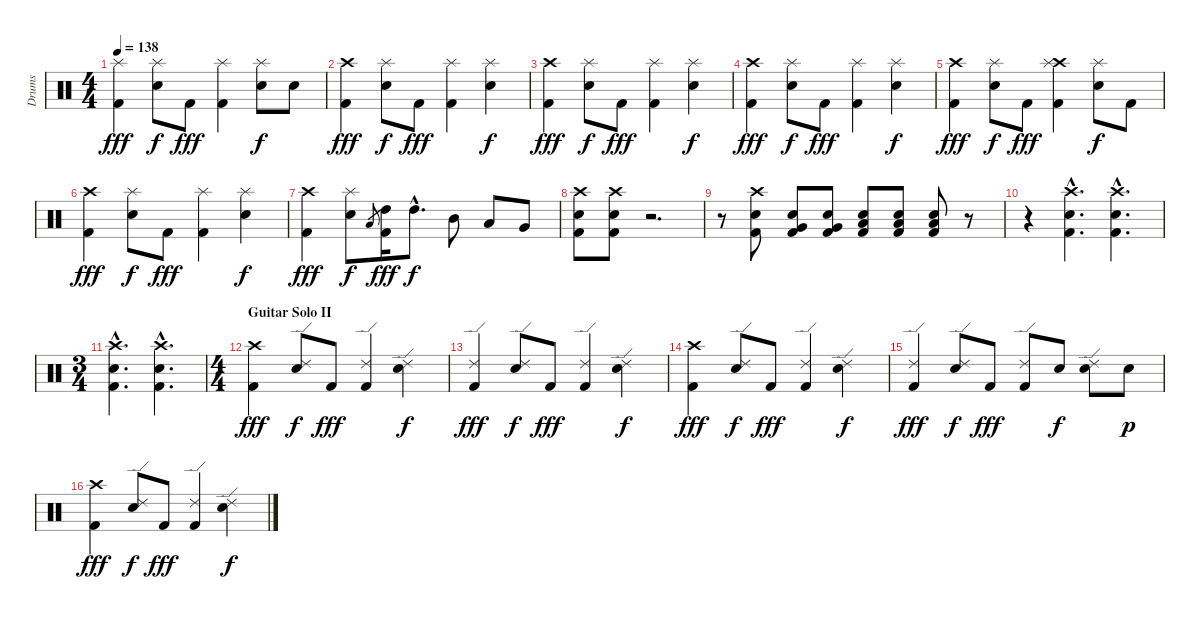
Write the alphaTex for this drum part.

\track ("Drums" "Drums") {instrument percussion}
\staff {score}
\articulation defaults
\ts (4 4)
\tempo 138
\clef neutral
\ks c
("Splash (hit)" "Kick (hit) 2").4{dy fff} ("Splash (hit)" "Snare (hit) 2").8{dy f} "Kick (hit) 2".8{dy fff} ("Splash (hit)" "Kick (hit) 2").4 ("Splash (hit)" "Snare (hit) 2").8{dy f} "Snare (hit) 2".8 |
("Crash high (hit)" "Kick (hit) 2").4{dy fff} ("Splash (hit)" "Snare (hit) 2").8{dy f} "Kick (hit) 2".8{dy fff} ("Splash (hit)" "Kick (hit) 2").4 ("Splash (hit)" "Snare (hit) 2").4{dy f} |
("Crash high (hit)" "Kick (hit) 2").4{dy fff} ("Splash (hit)" "Snare (hit) 2").8{dy f} "Kick (hit) 2".8{dy fff} ("Splash (hit)" "Kick (hit) 2").4 ("Splash (hit)" "Snare (hit) 2").4{dy f} |
("Crash high (hit)" "Kick (hit) 2").4{dy fff} ("Splash (hit)" "Snare (hit) 2").8{dy f} "Kick (hit) 2".8{dy fff} ("Splash (hit)" "Kick (hit) 2").4 ("Splash (hit)" "Snare (hit) 2").4{dy f} |
("Crash high (hit)" "Kick (hit) 2").4{dy fff} ("Splash (hit)" "Snare (hit) 2").8{dy f} "Kick (hit) 2".8{dy fff} ("Crash high (hit)" "Splash (hit)" "Kick (hit) 2").4 ("Splash (hit)" "Snare (hit) 2").8{dy f} "Kick (hit) 2".8 |
("Crash high (hit)" "Kick (hit) 2").4{dy fff} ("Splash (hit)" "Snare (hit) 2").8{dy f} "Kick (hit) 2".8{dy fff} ("Splash (hit)" "Kick (hit) 2").4 ("Splash (hit)" "Snare (hit) 2").4{dy f} |
("Crash high (hit)" "Kick (hit) 2").4{dy fff} ("Splash (hit)" "Snare (hit) 2").8{dy f} "Low Tom (hit)".8{gr} ("High Tom (hit)" "Kick (hit) 2").16{dy fff} "High Tom (hit)"{hac}.8{d dy f} "Mid Tom (hit)".8 "Low Tom (hit)".8 "Very Low Tom (hit)".8 |
("Crash high (hit)" "Snare (hit) 2" "Kick (hit) 2").8 ("Crash high (hit)" "Snare (hit) 2" "Kick (hit) 2").8 r.2{d} |
r.8 ("Crash high (hit)" "Snare (hit) 2" "Kick (hit) 2").8 ("Snare (hit) 2" "Very Low Tom (hit)" "Kick (hit) 2").8 ("Snare (hit) 2" "Very Low Tom (hit)" "Kick (hit) 2").8 ("Snare (hit) 2" "Low Floor Tom (hit)" "Kick (hit) 2").8 ("Snare (hit) 2" "Low Floor Tom (hit)" "Kick (hit) 2").8 ("Snare (hit) 2" "Low Floor Tom (hit)" "Kick (hit) 2").8 r.8 |
r.4 ("Crash high (hit)"{hac} "Snare (hit) 2"{hac} "Kick (hit) 2"{hac}).4{d} ("Crash high (hit)"{hac} "Snare (hit) 2"{hac} "Kick (hit) 2"{hac}).4{d} |
\ts (3 4)
("Crash high (hit)"{hac} "Snare (hit) 2"{hac} "Kick (hit) 2"{hac}).4{d} ("Crash high (hit)"{hac} "Snare (hit) 2"{hac} "Kick (hit) 2"{hac}).4{d} |
\ts (4 4)
\section ("" "Guitar Solo II")
("Crash high (hit)" "Kick (hit) 2").4{dy fff} ("Ride (edge) 2" "Snare (hit) 2").8{dy f} "Kick (hit) 2".8{dy fff} ("Ride (edge) 2" "Kick (hit) 2").4 ("Ride (edge) 2" "Snare (hit) 2").4{dy f} |
("Ride (edge) 2" "Kick (hit) 2").4{dy fff} ("Ride (edge) 2" "Snare (hit) 2").8{dy f} "Kick (hit) 2".8{dy fff} ("Ride (edge) 2" "Kick (hit) 2").4 ("Ride (edge) 2" "Snare (hit) 2").4{dy f} |
("Crash high (hit)" "Kick (hit) 2").4{dy fff} ("Ride (edge) 2" "Snare (hit) 2").8{dy f} "Kick (hit) 2".8{dy fff} ("Ride (edge) 2" "Kick (hit) 2").4 ("Ride (edge) 2" "Snare (hit) 2").4{dy f} |
("Ride (edge) 2" "Kick (hit) 2").4{dy fff} ("Ride (edge) 2" "Snare (hit) 2").8{dy f} "Kick (hit) 2".8{dy fff} ("Ride (edge) 2" "Kick (hit) 2").8 "Snare (hit) 2".8{dy f} ("Ride (edge) 2" "Snare (hit) 2").8 "Snare (hit) 2".8{dy p} |
("Crash high (hit)" "Kick (hit) 2").4{dy fff} ("Ride (edge) 2" "Snare (hit) 2").8{dy f} "Kick (hit) 2".8{dy fff} ("Ride (edge) 2" "Kick (hit) 2").4 ("Ride (edge) 2" "Snare (hit) 2").4{dy f}
